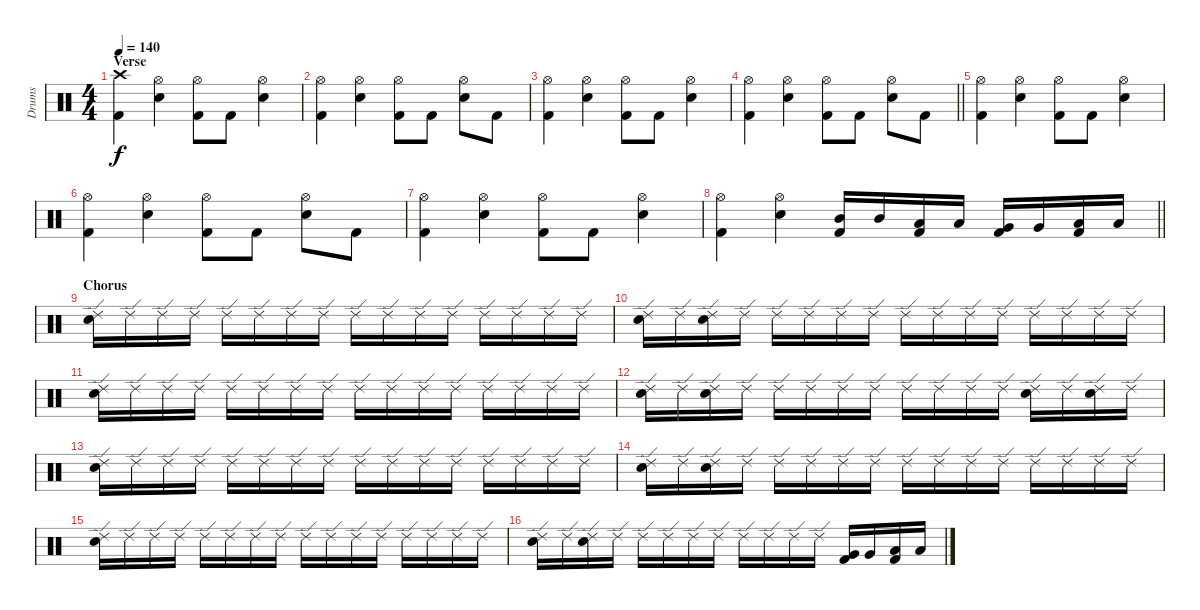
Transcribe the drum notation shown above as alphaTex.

\track ("Drums " "Drums ") {instrument percussion}
\staff {score}
\articulation defaults
\ts (4 4)
\section ("" "Verse")
\tempo 140
\clef neutral
\ks c
("Crash high (hit)" "Kick (hit) 2").4{dy f} ("Hi-Hat (open)" "Electric Snare (hit)").4 ("Hi-Hat (open)" "Kick (hit) 2").8 "Kick (hit) 2".8 ("Hi-Hat (open)" "Electric Snare (hit)").4 |
("Hi-Hat (open)" "Kick (hit) 2").4 ("Hi-Hat (open)" "Electric Snare (hit)").4 ("Hi-Hat (open)" "Kick (hit) 2").8 "Kick (hit) 2".8 ("Hi-Hat (open)" "Electric Snare (hit)").8 "Kick (hit) 2".8 |
("Hi-Hat (open)" "Kick (hit) 2").4 ("Hi-Hat (open)" "Electric Snare (hit)").4 ("Hi-Hat (open)" "Kick (hit) 2").8 "Kick (hit) 2".8 ("Hi-Hat (open)" "Electric Snare (hit)").4 |
\barLineRight lightlight
("Hi-Hat (open)" "Kick (hit) 2").4 ("Hi-Hat (open)" "Electric Snare (hit)").4 ("Hi-Hat (open)" "Kick (hit) 2").8 "Kick (hit) 2".8 ("Hi-Hat (open)" "Electric Snare (hit)").8 "Kick (hit) 2".8 |
("Hi-Hat (open)" "Kick (hit) 2").4 ("Hi-Hat (open)" "Electric Snare (hit)").4 ("Hi-Hat (open)" "Kick (hit) 2").8 "Kick (hit) 2".8 ("Hi-Hat (open)" "Electric Snare (hit)").4 |
("Hi-Hat (open)" "Kick (hit) 2").4 ("Hi-Hat (open)" "Electric Snare (hit)").4 ("Hi-Hat (open)" "Kick (hit) 2").8 "Kick (hit) 2".8 ("Hi-Hat (open)" "Electric Snare (hit)").8 "Kick (hit) 2".8 |
("Hi-Hat (open)" "Kick (hit) 2").4 ("Hi-Hat (open)" "Electric Snare (hit)").4 ("Hi-Hat (open)" "Kick (hit) 2").8 "Kick (hit) 2".8 ("Hi-Hat (open)" "Electric Snare (hit)").4 |
\barLineRight lightlight
("Hi-Hat (open)" "Kick (hit) 2").4 ("Hi-Hat (open)" "Electric Snare (hit)").4 ("Mid Tom (hit)" "Kick (hit) 2").16 "Mid Tom (hit)".16 ("Low Tom (hit)" "Kick (hit) 2").16 "Low Tom (hit)".16 ("Very Low Tom (hit)" "Kick (hit) 2").16 "Very Low Tom (hit)".16 ("Low Floor Tom (hit)" "Kick (hit) 2").16 "Low Floor Tom (hit)".16 |
\section ("" "Chorus")
("Ride (edge) 2" "Electric Snare (hit)").16 "Ride (edge) 2".16 "Ride (edge) 2".16 "Ride (edge) 2".16 "Ride (edge) 2".16 "Ride (edge) 2".16 "Ride (edge) 2".16 "Ride (edge) 2".16 "Ride (edge) 2".16 "Ride (edge) 2".16 "Ride (edge) 2".16 "Ride (edge) 2".16 "Ride (edge) 2".16 "Ride (edge) 2".16 "Ride (edge) 2".16 "Ride (edge) 2".16 |
("Ride (edge) 2" "Electric Snare (hit)").16 "Ride (edge) 2".16 ("Ride (edge) 2" "Electric Snare (hit)").16 "Ride (edge) 2".16 "Ride (edge) 2".16 "Ride (edge) 2".16 "Ride (edge) 2".16 "Ride (edge) 2".16 "Ride (edge) 2".16 "Ride (edge) 2".16 "Ride (edge) 2".16 "Ride (edge) 2".16 "Ride (edge) 2".16 "Ride (edge) 2".16 "Ride (edge) 2".16 "Ride (edge) 2".16 |
("Ride (edge) 2" "Electric Snare (hit)").16 "Ride (edge) 2".16 "Ride (edge) 2".16 "Ride (edge) 2".16 "Ride (edge) 2".16 "Ride (edge) 2".16 "Ride (edge) 2".16 "Ride (edge) 2".16 "Ride (edge) 2".16 "Ride (edge) 2".16 "Ride (edge) 2".16 "Ride (edge) 2".16 "Ride (edge) 2".16 "Ride (edge) 2".16 "Ride (edge) 2".16 "Ride (edge) 2".16 |
("Ride (edge) 2" "Electric Snare (hit)").16 "Ride (edge) 2".16 ("Ride (edge) 2" "Electric Snare (hit)").16 "Ride (edge) 2".16 "Ride (edge) 2".16 "Ride (edge) 2".16 "Ride (edge) 2".16 "Ride (edge) 2".16 "Ride (edge) 2".16 "Ride (edge) 2".16 "Ride (edge) 2".16 "Ride (edge) 2".16 ("Ride (edge) 2" "Electric Snare (hit)").16 "Ride (edge) 2".16 ("Ride (edge) 2" "Electric Snare (hit)").16 "Ride (edge) 2".16 |
("Ride (edge) 2" "Electric Snare (hit)").16 "Ride (edge) 2".16 "Ride (edge) 2".16 "Ride (edge) 2".16 "Ride (edge) 2".16 "Ride (edge) 2".16 "Ride (edge) 2".16 "Ride (edge) 2".16 "Ride (edge) 2".16 "Ride (edge) 2".16 "Ride (edge) 2".16 "Ride (edge) 2".16 "Ride (edge) 2".16 "Ride (edge) 2".16 "Ride (edge) 2".16 "Ride (edge) 2".16 |
("Ride (edge) 2" "Electric Snare (hit)").16 "Ride (edge) 2".16 ("Ride (edge) 2" "Electric Snare (hit)").16 "Ride (edge) 2".16 "Ride (edge) 2".16 "Ride (edge) 2".16 "Ride (edge) 2".16 "Ride (edge) 2".16 "Ride (edge) 2".16 "Ride (edge) 2".16 "Ride (edge) 2".16 "Ride (edge) 2".16 "Ride (edge) 2".16 "Ride (edge) 2".16 "Ride (edge) 2".16 "Ride (edge) 2".16 |
("Ride (edge) 2" "Electric Snare (hit)").16 "Ride (edge) 2".16 "Ride (edge) 2".16 "Ride (edge) 2".16 "Ride (edge) 2".16 "Ride (edge) 2".16 "Ride (edge) 2".16 "Ride (edge) 2".16 "Ride (edge) 2".16 "Ride (edge) 2".16 "Ride (edge) 2".16 "Ride (edge) 2".16 "Ride (edge) 2".16 "Ride (edge) 2".16 "Ride (edge) 2".16 "Ride (edge) 2".16 |
("Ride (edge) 2" "Electric Snare (hit)").16 "Ride (edge) 2".16 ("Ride (edge) 2" "Electric Snare (hit)").16 "Ride (edge) 2".16 "Ride (edge) 2".16 "Ride (edge) 2".16 "Ride (edge) 2".16 "Ride (edge) 2".16 "Ride (edge) 2".16 "Ride (edge) 2".16 "Ride (edge) 2".16 "Ride (edge) 2".16 ("Very Low Tom (hit)" "Kick (hit) 2").16 "Very Low Tom (hit)".16 ("Low Floor Tom (hit)" "Kick (hit) 2").16 "Low Floor Tom (hit)".16
